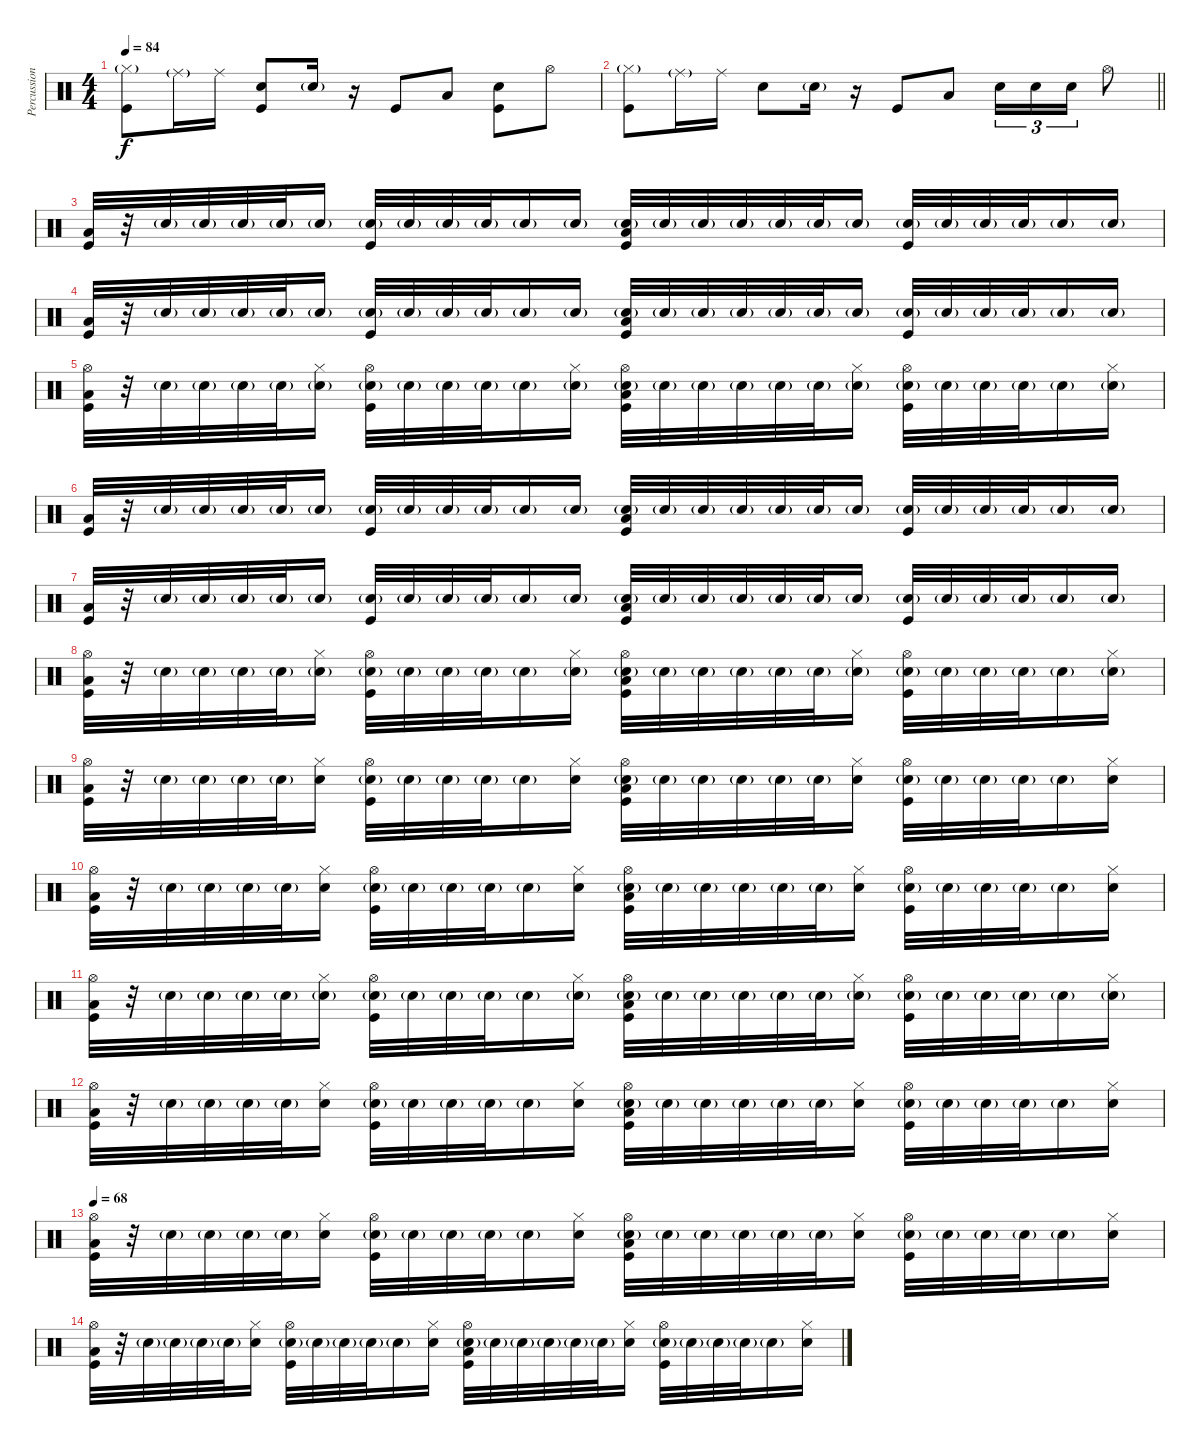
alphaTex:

\track ("Percussion" "Percussion") {instrument percussion}
\staff {score}
\articulation defaults
\ts (4 4)
\tempo 84
\clef neutral
\ks c
("Hi-Hat (closed)"{g} "Kick (hit)").8{dy f} "Ride (middle)"{g}.16 "Ride (middle)".16 ("Snare (hit) 2" "Kick (hit)").8 "Snare (hit) 2"{g}.16 r.16 "Kick (hit)".8 "Low Floor Tom (hit)".8 ("Snare (hit) 2" "Kick (hit)").8 "Hi-Hat (open)".8 |
\barLineRight lightlight
("Hi-Hat (closed)"{g} "Kick (hit)").8 "Ride (middle)"{g}.16 "Ride (middle)".16 "Snare (hit) 2".8 "Snare (hit) 2"{g}.16 r.16 "Kick (hit)".8 "Low Floor Tom (hit)".8 "Snare (hit) 2".16{tu (3 2)} "Snare (hit) 2".16{tu (3 2)} "Snare (hit) 2".16{tu (3 2)} "Hi-Hat (open)".8 |
("Low Floor Tom (hit)" "Kick (hit)").32 r.32 "Snare (hit) 2"{g}.32 "Snare (hit) 2"{g}.32 "Snare (hit) 2"{g}.32 "Snare (hit) 2"{g}.32 "Snare (hit) 2"{g}.16 ("Snare (hit) 2"{g} "Kick (hit)").32 "Snare (hit) 2"{g}.32 "Snare (hit) 2"{g}.32 "Snare (hit) 2"{g}.32 "Snare (hit) 2"{g}.16 "Snare (hit) 2"{g}.16 ("Low Floor Tom (hit)" "Snare (hit) 2"{g} "Kick (hit)").32 "Snare (hit) 2"{g}.32 "Snare (hit) 2"{g}.32 "Snare (hit) 2"{g}.32 "Snare (hit) 2"{g}.32 "Snare (hit) 2"{g}.32 "Snare (hit) 2"{g}.16 ("Snare (hit) 2"{g} "Kick (hit)").32 "Snare (hit) 2"{g}.32 "Snare (hit) 2"{g}.32 "Snare (hit) 2"{g}.32 "Snare (hit) 2"{g}.16 "Snare (hit) 2"{g}.16 |
("Low Floor Tom (hit)" "Kick (hit)").32 r.32 "Snare (hit) 2"{g}.32 "Snare (hit) 2"{g}.32 "Snare (hit) 2"{g}.32 "Snare (hit) 2"{g}.32 "Snare (hit) 2"{g}.16 ("Snare (hit) 2"{g} "Kick (hit)").32 "Snare (hit) 2"{g}.32 "Snare (hit) 2"{g}.32 "Snare (hit) 2"{g}.32 "Snare (hit) 2"{g}.16 "Snare (hit) 2"{g}.16 ("Low Floor Tom (hit)" "Snare (hit) 2"{g} "Kick (hit)").32 "Snare (hit) 2"{g}.32 "Snare (hit) 2"{g}.32 "Snare (hit) 2"{g}.32 "Snare (hit) 2"{g}.32 "Snare (hit) 2"{g}.32 "Snare (hit) 2"{g}.16 ("Snare (hit) 2"{g} "Kick (hit)").32 "Snare (hit) 2"{g}.32 "Snare (hit) 2"{g}.32 "Snare (hit) 2"{g}.32 "Snare (hit) 2"{g}.16 "Snare (hit) 2"{g}.16 |
("Hi-Hat (open)" "Low Floor Tom (hit)" "Kick (hit)").32 r.32 "Snare (hit) 2"{g}.32 "Snare (hit) 2"{g}.32 "Snare (hit) 2"{g}.32 "Snare (hit) 2"{g}.32 ("Hi-Hat (closed)" "Snare (hit) 2"{g}).16 ("Hi-Hat (open)" "Snare (hit) 2"{g} "Kick (hit)").32 "Snare (hit) 2"{g}.32 "Snare (hit) 2"{g}.32 "Snare (hit) 2"{g}.32 "Snare (hit) 2"{g}.16 ("Hi-Hat (closed)" "Snare (hit) 2"{g}).16 ("Hi-Hat (open)" "Low Floor Tom (hit)" "Snare (hit) 2"{g} "Kick (hit)").32 "Snare (hit) 2"{g}.32 "Snare (hit) 2"{g}.32 "Snare (hit) 2"{g}.32 "Snare (hit) 2"{g}.32 "Snare (hit) 2"{g}.32 ("Hi-Hat (closed)" "Snare (hit) 2"{g}).16 ("Hi-Hat (open)" "Snare (hit) 2"{g} "Kick (hit)").32 "Snare (hit) 2"{g}.32 "Snare (hit) 2"{g}.32 "Snare (hit) 2"{g}.32 "Snare (hit) 2"{g}.16 ("Hi-Hat (closed)" "Snare (hit) 2"{g}).16 |
("Low Floor Tom (hit)" "Kick (hit)").32 r.32 "Snare (hit) 2"{g}.32 "Snare (hit) 2"{g}.32 "Snare (hit) 2"{g}.32 "Snare (hit) 2"{g}.32 "Snare (hit) 2"{g}.16 ("Snare (hit) 2"{g} "Kick (hit)").32 "Snare (hit) 2"{g}.32 "Snare (hit) 2"{g}.32 "Snare (hit) 2"{g}.32 "Snare (hit) 2"{g}.16 "Snare (hit) 2"{g}.16 ("Low Floor Tom (hit)" "Snare (hit) 2"{g} "Kick (hit)").32 "Snare (hit) 2"{g}.32 "Snare (hit) 2"{g}.32 "Snare (hit) 2"{g}.32 "Snare (hit) 2"{g}.32 "Snare (hit) 2"{g}.32 "Snare (hit) 2"{g}.16 ("Snare (hit) 2"{g} "Kick (hit)").32 "Snare (hit) 2"{g}.32 "Snare (hit) 2"{g}.32 "Snare (hit) 2"{g}.32 "Snare (hit) 2"{g}.16 "Snare (hit) 2"{g}.16 |
("Low Floor Tom (hit)" "Kick (hit)").32 r.32 "Snare (hit) 2"{g}.32 "Snare (hit) 2"{g}.32 "Snare (hit) 2"{g}.32 "Snare (hit) 2"{g}.32 "Snare (hit) 2"{g}.16 ("Snare (hit) 2"{g} "Kick (hit)").32 "Snare (hit) 2"{g}.32 "Snare (hit) 2"{g}.32 "Snare (hit) 2"{g}.32 "Snare (hit) 2"{g}.16 "Snare (hit) 2"{g}.16 ("Low Floor Tom (hit)" "Snare (hit) 2"{g} "Kick (hit)").32 "Snare (hit) 2"{g}.32 "Snare (hit) 2"{g}.32 "Snare (hit) 2"{g}.32 "Snare (hit) 2"{g}.32 "Snare (hit) 2"{g}.32 "Snare (hit) 2"{g}.16 ("Snare (hit) 2"{g} "Kick (hit)").32 "Snare (hit) 2"{g}.32 "Snare (hit) 2"{g}.32 "Snare (hit) 2"{g}.32 "Snare (hit) 2"{g}.16 "Snare (hit) 2"{g}.16 |
("Hi-Hat (open)" "Low Floor Tom (hit)" "Kick (hit)").32 r.32 "Snare (hit) 2"{g}.32 "Snare (hit) 2"{g}.32 "Snare (hit) 2"{g}.32 "Snare (hit) 2"{g}.32 ("Hi-Hat (closed)" "Snare (hit) 2"{g}).16 ("Hi-Hat (open)" "Snare (hit) 2"{g} "Kick (hit)").32 "Snare (hit) 2"{g}.32 "Snare (hit) 2"{g}.32 "Snare (hit) 2"{g}.32 "Snare (hit) 2"{g}.16 ("Hi-Hat (closed)" "Snare (hit) 2"{g}).16 ("Hi-Hat (open)" "Low Floor Tom (hit)" "Snare (hit) 2"{g} "Kick (hit)").32 "Snare (hit) 2"{g}.32 "Snare (hit) 2"{g}.32 "Snare (hit) 2"{g}.32 "Snare (hit) 2"{g}.32 "Snare (hit) 2"{g}.32 ("Hi-Hat (closed)" "Snare (hit) 2"{g}).16 ("Hi-Hat (open)" "Snare (hit) 2"{g} "Kick (hit)").32 "Snare (hit) 2"{g}.32 "Snare (hit) 2"{g}.32 "Snare (hit) 2"{g}.32 "Snare (hit) 2"{g}.16 ("Hi-Hat (closed)" "Snare (hit) 2"{g}).16 |
("Hi-Hat (open)" "Low Floor Tom (hit)" "Kick (hit)").32 r.32 "Snare (hit) 2"{g}.32 "Snare (hit) 2"{g}.32 "Snare (hit) 2"{g}.32 "Snare (hit) 2"{g}.32 ("Hi-Hat (closed)" "Snare (hit) 2").16 ("Hi-Hat (open)" "Snare (hit) 2"{g} "Kick (hit)").32 "Snare (hit) 2"{g}.32 "Snare (hit) 2"{g}.32 "Snare (hit) 2"{g}.32 "Snare (hit) 2"{g}.16 ("Hi-Hat (closed)" "Snare (hit) 2").16 ("Hi-Hat (open)" "Low Floor Tom (hit)" "Snare (hit) 2"{g} "Kick (hit)").32 "Snare (hit) 2"{g}.32 "Snare (hit) 2"{g}.32 "Snare (hit) 2"{g}.32 "Snare (hit) 2"{g}.32 "Snare (hit) 2"{g}.32 ("Hi-Hat (closed)" "Snare (hit) 2").16 ("Hi-Hat (open)" "Snare (hit) 2"{g} "Kick (hit)").32 "Snare (hit) 2"{g}.32 "Snare (hit) 2"{g}.32 "Snare (hit) 2"{g}.32 "Snare (hit) 2"{g}.16 ("Hi-Hat (closed)" "Snare (hit) 2").16 |
("Hi-Hat (open)" "Low Floor Tom (hit)" "Kick (hit)").32 r.32 "Snare (hit) 2"{g}.32 "Snare (hit) 2"{g}.32 "Snare (hit) 2"{g}.32 "Snare (hit) 2"{g}.32 ("Hi-Hat (closed)" "Snare (hit) 2").16 ("Hi-Hat (open)" "Snare (hit) 2"{g} "Kick (hit)").32 "Snare (hit) 2"{g}.32 "Snare (hit) 2"{g}.32 "Snare (hit) 2"{g}.32 "Snare (hit) 2"{g}.16 ("Hi-Hat (closed)" "Snare (hit) 2").16 ("Hi-Hat (open)" "Low Floor Tom (hit)" "Snare (hit) 2"{g} "Kick (hit)").32 "Snare (hit) 2"{g}.32 "Snare (hit) 2"{g}.32 "Snare (hit) 2"{g}.32 "Snare (hit) 2"{g}.32 "Snare (hit) 2"{g}.32 ("Hi-Hat (closed)" "Snare (hit) 2").16 ("Hi-Hat (open)" "Snare (hit) 2"{g} "Kick (hit)").32 "Snare (hit) 2"{g}.32 "Snare (hit) 2"{g}.32 "Snare (hit) 2"{g}.32 "Snare (hit) 2"{g}.16 ("Hi-Hat (closed)" "Snare (hit) 2").16 |
("Hi-Hat (open)" "Low Floor Tom (hit)" "Kick (hit)").32 r.32 "Snare (hit) 2"{g}.32 "Snare (hit) 2"{g}.32 "Snare (hit) 2"{g}.32 "Snare (hit) 2"{g}.32 ("Hi-Hat (closed)" "Snare (hit) 2"{g}).16 ("Hi-Hat (open)" "Snare (hit) 2"{g} "Kick (hit)").32 "Snare (hit) 2"{g}.32 "Snare (hit) 2"{g}.32 "Snare (hit) 2"{g}.32 "Snare (hit) 2"{g}.16 ("Hi-Hat (closed)" "Snare (hit) 2"{g}).16 ("Hi-Hat (open)" "Low Floor Tom (hit)" "Snare (hit) 2"{g} "Kick (hit)").32 "Snare (hit) 2"{g}.32 "Snare (hit) 2"{g}.32 "Snare (hit) 2"{g}.32 "Snare (hit) 2"{g}.32 "Snare (hit) 2"{g}.32 ("Hi-Hat (closed)" "Snare (hit) 2"{g}).16 ("Hi-Hat (open)" "Snare (hit) 2"{g} "Kick (hit)").32 "Snare (hit) 2"{g}.32 "Snare (hit) 2"{g}.32 "Snare (hit) 2"{g}.32 "Snare (hit) 2"{g}.16 ("Hi-Hat (closed)" "Snare (hit) 2"{g}).16 |
("Hi-Hat (open)" "Low Floor Tom (hit)" "Kick (hit)").32 r.32 "Snare (hit) 2"{g}.32 "Snare (hit) 2"{g}.32 "Snare (hit) 2"{g}.32 "Snare (hit) 2"{g}.32 ("Hi-Hat (closed)" "Snare (hit) 2").16 ("Hi-Hat (open)" "Snare (hit) 2"{g} "Kick (hit)").32 "Snare (hit) 2"{g}.32 "Snare (hit) 2"{g}.32 "Snare (hit) 2"{g}.32 "Snare (hit) 2"{g}.16 ("Hi-Hat (closed)" "Snare (hit) 2").16 ("Hi-Hat (open)" "Low Floor Tom (hit)" "Snare (hit) 2"{g} "Kick (hit)").32 "Snare (hit) 2"{g}.32 "Snare (hit) 2"{g}.32 "Snare (hit) 2"{g}.32 "Snare (hit) 2"{g}.32 "Snare (hit) 2"{g}.32 ("Hi-Hat (closed)" "Snare (hit) 2").16 ("Hi-Hat (open)" "Snare (hit) 2"{g} "Kick (hit)").32 "Snare (hit) 2"{g}.32 "Snare (hit) 2"{g}.32 "Snare (hit) 2"{g}.32 "Snare (hit) 2"{g}.16 ("Hi-Hat (closed)" "Snare (hit) 2").16 |
\tempo 68
("Hi-Hat (open)" "Low Floor Tom (hit)" "Kick (hit)").32 r.32 "Snare (hit) 2"{g}.32 "Snare (hit) 2"{g}.32 "Snare (hit) 2"{g}.32 "Snare (hit) 2"{g}.32 ("Hi-Hat (closed)" "Snare (hit) 2").16 ("Hi-Hat (open)" "Snare (hit) 2"{g} "Kick (hit)").32 "Snare (hit) 2"{g}.32 "Snare (hit) 2"{g}.32 "Snare (hit) 2"{g}.32 "Snare (hit) 2"{g}.16 ("Hi-Hat (closed)" "Snare (hit) 2").16 ("Hi-Hat (open)" "Low Floor Tom (hit)" "Snare (hit) 2"{g} "Kick (hit)").32 "Snare (hit) 2"{g}.32 "Snare (hit) 2"{g}.32 "Snare (hit) 2"{g}.32 "Snare (hit) 2"{g}.32 "Snare (hit) 2"{g}.32 ("Hi-Hat (closed)" "Snare (hit) 2").16 ("Hi-Hat (open)" "Snare (hit) 2"{g} "Kick (hit)").32 "Snare (hit) 2"{g}.32 "Snare (hit) 2"{g}.32 "Snare (hit) 2"{g}.32 "Snare (hit) 2"{g}.16 ("Hi-Hat (closed)" "Snare (hit) 2").16 |
("Hi-Hat (open)" "Low Floor Tom (hit)" "Kick (hit)").32 r.32 "Snare (hit) 2"{g}.32 "Snare (hit) 2"{g}.32 "Snare (hit) 2"{g}.32 "Snare (hit) 2"{g}.32 ("Hi-Hat (closed)" "Snare (hit) 2").16 ("Hi-Hat (open)" "Snare (hit) 2"{g} "Kick (hit)").32 "Snare (hit) 2"{g}.32 "Snare (hit) 2"{g}.32 "Snare (hit) 2"{g}.32 "Snare (hit) 2"{g}.16 ("Hi-Hat (closed)" "Snare (hit) 2").16 ("Hi-Hat (open)" "Low Floor Tom (hit)" "Snare (hit) 2"{g} "Kick (hit)").32 "Snare (hit) 2"{g}.32 "Snare (hit) 2"{g}.32 "Snare (hit) 2"{g}.32 "Snare (hit) 2"{g}.32 "Snare (hit) 2"{g}.32 ("Hi-Hat (closed)" "Snare (hit) 2").16 ("Hi-Hat (open)" "Snare (hit) 2"{g} "Kick (hit)").32 "Snare (hit) 2"{g}.32 "Snare (hit) 2"{g}.32 "Snare (hit) 2"{g}.32 "Snare (hit) 2"{g}.16 ("Hi-Hat (closed)" "Snare (hit) 2").16
